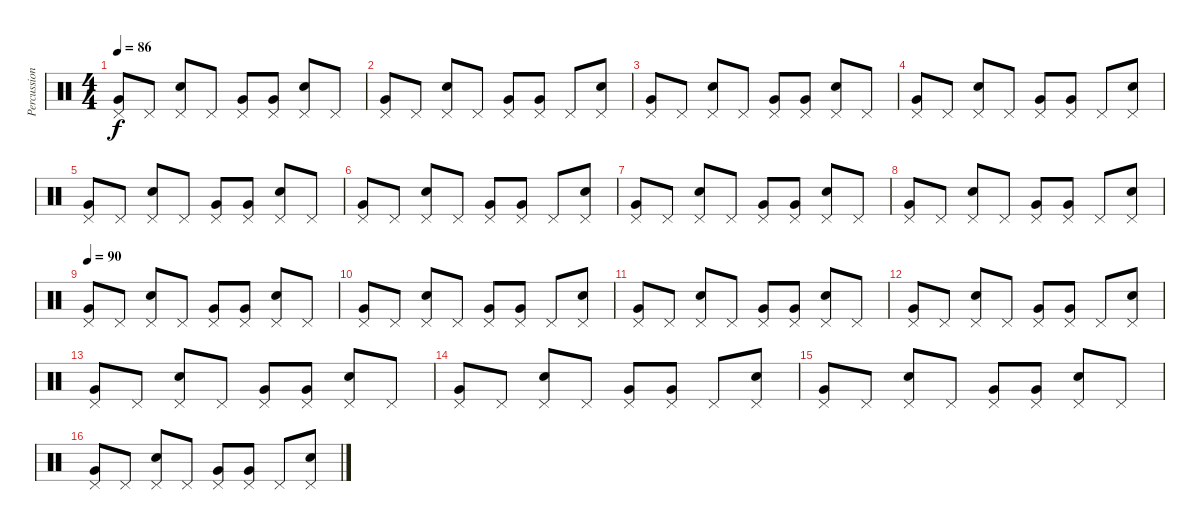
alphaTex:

\track ("Percussion" "Percussion") {instrument percussion}
\staff {score}
\articulation defaults
\ts (4 4)
\tempo 86
\clef neutral
\ks c
("Pedal Hi-Hat (hit)" "Very Low Tom (hit)").8{dy f} "Pedal Hi-Hat (hit)".8 ("Pedal Hi-Hat (hit)" "Snare (hit) 2").8 "Pedal Hi-Hat (hit)".8 ("Pedal Hi-Hat (hit)" "Very Low Tom (hit)").8 ("Pedal Hi-Hat (hit)" "Very Low Tom (hit)").8 ("Pedal Hi-Hat (hit)" "Snare (hit) 2").8 "Pedal Hi-Hat (hit)".8 |
("Pedal Hi-Hat (hit)" "Very Low Tom (hit)").8 "Pedal Hi-Hat (hit)".8 ("Pedal Hi-Hat (hit)" "Snare (hit) 2").8 "Pedal Hi-Hat (hit)".8 ("Pedal Hi-Hat (hit)" "Very Low Tom (hit)").8 ("Pedal Hi-Hat (hit)" "Very Low Tom (hit)").8 "Pedal Hi-Hat (hit)".8 ("Pedal Hi-Hat (hit)" "Snare (hit) 2").8 |
("Pedal Hi-Hat (hit)" "Very Low Tom (hit)").8 "Pedal Hi-Hat (hit)".8 ("Pedal Hi-Hat (hit)" "Snare (hit) 2").8 "Pedal Hi-Hat (hit)".8 ("Pedal Hi-Hat (hit)" "Very Low Tom (hit)").8 ("Pedal Hi-Hat (hit)" "Very Low Tom (hit)").8 ("Pedal Hi-Hat (hit)" "Snare (hit) 2").8 "Pedal Hi-Hat (hit)".8 |
("Pedal Hi-Hat (hit)" "Very Low Tom (hit)").8 "Pedal Hi-Hat (hit)".8 ("Pedal Hi-Hat (hit)" "Snare (hit) 2").8 "Pedal Hi-Hat (hit)".8 ("Pedal Hi-Hat (hit)" "Very Low Tom (hit)").8 ("Pedal Hi-Hat (hit)" "Very Low Tom (hit)").8 "Pedal Hi-Hat (hit)".8 ("Pedal Hi-Hat (hit)" "Snare (hit) 2").8 |
("Pedal Hi-Hat (hit)" "Very Low Tom (hit)").8 "Pedal Hi-Hat (hit)".8 ("Pedal Hi-Hat (hit)" "Snare (hit) 2").8 "Pedal Hi-Hat (hit)".8 ("Pedal Hi-Hat (hit)" "Very Low Tom (hit)").8 ("Pedal Hi-Hat (hit)" "Very Low Tom (hit)").8 ("Pedal Hi-Hat (hit)" "Snare (hit) 2").8 "Pedal Hi-Hat (hit)".8 |
("Pedal Hi-Hat (hit)" "Very Low Tom (hit)").8 "Pedal Hi-Hat (hit)".8 ("Pedal Hi-Hat (hit)" "Snare (hit) 2").8 "Pedal Hi-Hat (hit)".8 ("Pedal Hi-Hat (hit)" "Very Low Tom (hit)").8 ("Pedal Hi-Hat (hit)" "Very Low Tom (hit)").8 "Pedal Hi-Hat (hit)".8 ("Pedal Hi-Hat (hit)" "Snare (hit) 2").8 |
("Pedal Hi-Hat (hit)" "Very Low Tom (hit)").8 "Pedal Hi-Hat (hit)".8 ("Pedal Hi-Hat (hit)" "Snare (hit) 2").8 "Pedal Hi-Hat (hit)".8 ("Pedal Hi-Hat (hit)" "Very Low Tom (hit)").8 ("Pedal Hi-Hat (hit)" "Very Low Tom (hit)").8 ("Pedal Hi-Hat (hit)" "Snare (hit) 2").8 "Pedal Hi-Hat (hit)".8 |
("Pedal Hi-Hat (hit)" "Very Low Tom (hit)").8 "Pedal Hi-Hat (hit)".8 ("Pedal Hi-Hat (hit)" "Snare (hit) 2").8 "Pedal Hi-Hat (hit)".8 ("Pedal Hi-Hat (hit)" "Very Low Tom (hit)").8 ("Pedal Hi-Hat (hit)" "Very Low Tom (hit)").8 "Pedal Hi-Hat (hit)".8 ("Pedal Hi-Hat (hit)" "Snare (hit) 2").8 |
\tempo 90
("Pedal Hi-Hat (hit)" "Very Low Tom (hit)").8 "Pedal Hi-Hat (hit)".8 ("Pedal Hi-Hat (hit)" "Snare (hit) 2").8 "Pedal Hi-Hat (hit)".8 ("Pedal Hi-Hat (hit)" "Very Low Tom (hit)").8 ("Pedal Hi-Hat (hit)" "Very Low Tom (hit)").8 ("Pedal Hi-Hat (hit)" "Snare (hit) 2").8 "Pedal Hi-Hat (hit)".8 |
("Pedal Hi-Hat (hit)" "Very Low Tom (hit)").8 "Pedal Hi-Hat (hit)".8 ("Pedal Hi-Hat (hit)" "Snare (hit) 2").8 "Pedal Hi-Hat (hit)".8 ("Pedal Hi-Hat (hit)" "Very Low Tom (hit)").8 ("Pedal Hi-Hat (hit)" "Very Low Tom (hit)").8 "Pedal Hi-Hat (hit)".8 ("Pedal Hi-Hat (hit)" "Snare (hit) 2").8 |
("Pedal Hi-Hat (hit)" "Very Low Tom (hit)").8 "Pedal Hi-Hat (hit)".8 ("Pedal Hi-Hat (hit)" "Snare (hit) 2").8 "Pedal Hi-Hat (hit)".8 ("Pedal Hi-Hat (hit)" "Very Low Tom (hit)").8 ("Pedal Hi-Hat (hit)" "Very Low Tom (hit)").8 ("Pedal Hi-Hat (hit)" "Snare (hit) 2").8 "Pedal Hi-Hat (hit)".8 |
("Pedal Hi-Hat (hit)" "Very Low Tom (hit)").8 "Pedal Hi-Hat (hit)".8 ("Pedal Hi-Hat (hit)" "Snare (hit) 2").8 "Pedal Hi-Hat (hit)".8 ("Pedal Hi-Hat (hit)" "Very Low Tom (hit)").8 ("Pedal Hi-Hat (hit)" "Very Low Tom (hit)").8 "Pedal Hi-Hat (hit)".8 ("Pedal Hi-Hat (hit)" "Snare (hit) 2").8 |
("Pedal Hi-Hat (hit)" "Very Low Tom (hit)").8 "Pedal Hi-Hat (hit)".8 ("Pedal Hi-Hat (hit)" "Snare (hit) 2").8 "Pedal Hi-Hat (hit)".8 ("Pedal Hi-Hat (hit)" "Very Low Tom (hit)").8 ("Pedal Hi-Hat (hit)" "Very Low Tom (hit)").8 ("Pedal Hi-Hat (hit)" "Snare (hit) 2").8 "Pedal Hi-Hat (hit)".8 |
("Pedal Hi-Hat (hit)" "Very Low Tom (hit)").8 "Pedal Hi-Hat (hit)".8 ("Pedal Hi-Hat (hit)" "Snare (hit) 2").8 "Pedal Hi-Hat (hit)".8 ("Pedal Hi-Hat (hit)" "Very Low Tom (hit)").8 ("Pedal Hi-Hat (hit)" "Very Low Tom (hit)").8 "Pedal Hi-Hat (hit)".8 ("Pedal Hi-Hat (hit)" "Snare (hit) 2").8 |
("Pedal Hi-Hat (hit)" "Very Low Tom (hit)").8 "Pedal Hi-Hat (hit)".8 ("Pedal Hi-Hat (hit)" "Snare (hit) 2").8 "Pedal Hi-Hat (hit)".8 ("Pedal Hi-Hat (hit)" "Very Low Tom (hit)").8 ("Pedal Hi-Hat (hit)" "Very Low Tom (hit)").8 ("Pedal Hi-Hat (hit)" "Snare (hit) 2").8 "Pedal Hi-Hat (hit)".8 |
("Pedal Hi-Hat (hit)" "Very Low Tom (hit)").8 "Pedal Hi-Hat (hit)".8 ("Pedal Hi-Hat (hit)" "Snare (hit) 2").8 "Pedal Hi-Hat (hit)".8 ("Pedal Hi-Hat (hit)" "Very Low Tom (hit)").8 ("Pedal Hi-Hat (hit)" "Very Low Tom (hit)").8 "Pedal Hi-Hat (hit)".8 ("Pedal Hi-Hat (hit)" "Snare (hit) 2").8
